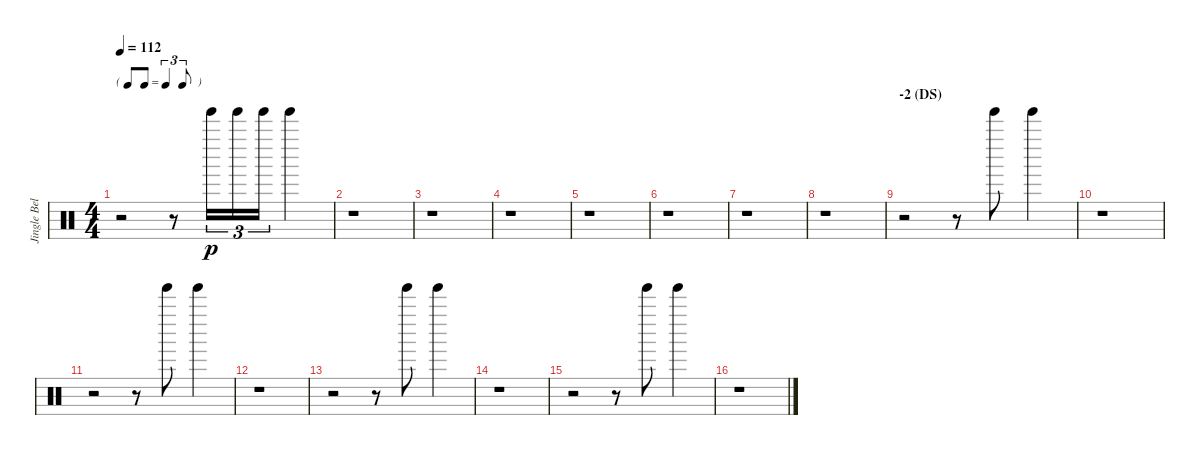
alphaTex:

\track ("Jingle Bell" "Jingle Bel") {instrument percussion}
\staff {score}
\articulation defaults
\ts (4 4)
\tf triplet8th
\section ("" "")
\tempo 112
\clef neutral
\ks c
r.2{dy p} r.8 "Tinkle Bell (hit)".16{tu (3 2)} "Tinkle Bell (hit)".16{tu (3 2)} "Tinkle Bell (hit)".16{tu (3 2)} "Tinkle Bell (hit)".4 |
r.1 |
r.1 |
r.1 |
r.1 |
r.1 |
r.1 |
r.1 |
\section ("" "-2 (DS)")
r.2 r.8 "Tinkle Bell (hit)".8 "Tinkle Bell (hit)".4 |
r.1 |
r.2 r.8 "Tinkle Bell (hit)".8 "Tinkle Bell (hit)".4 |
r.1 |
r.2 r.8 "Tinkle Bell (hit)".8 "Tinkle Bell (hit)".4 |
r.1 |
r.2 r.8 "Tinkle Bell (hit)".8 "Tinkle Bell (hit)".4 |
r.1
